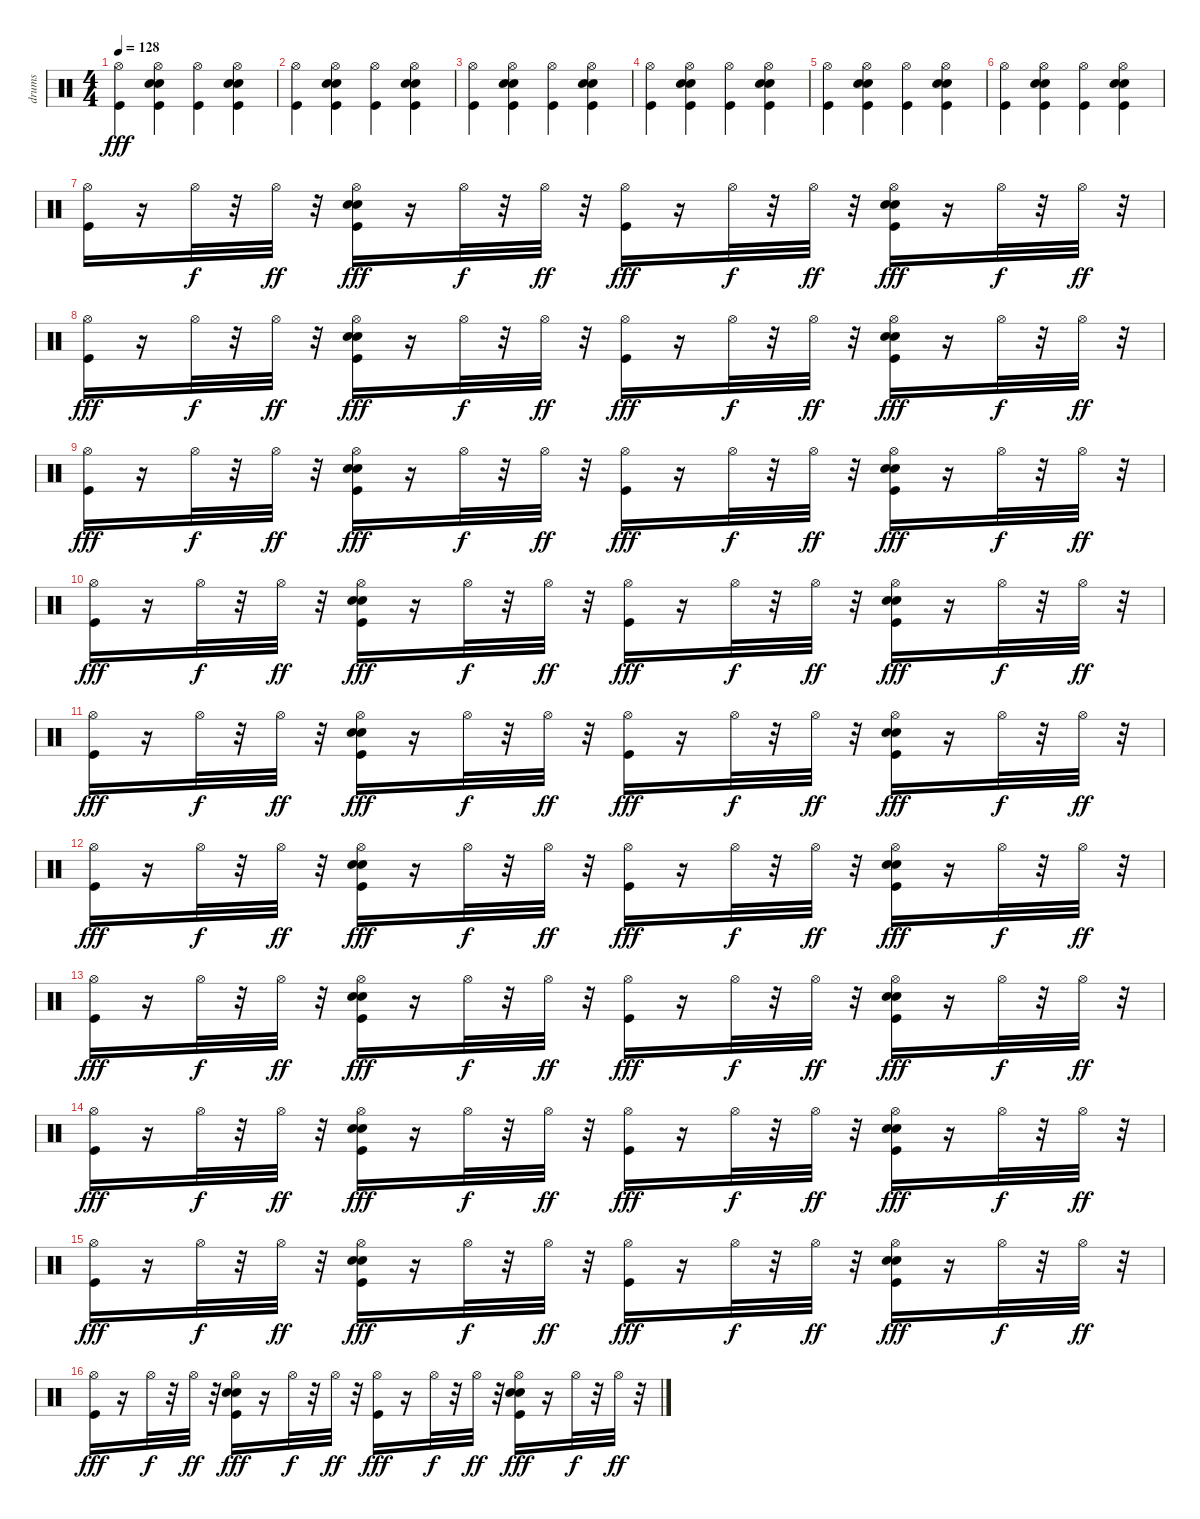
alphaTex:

\track ("drums" "drums") {instrument percussion}
\staff {score}
\articulation defaults
\ts (4 4)
\tempo 128
\clef neutral
\ks c
("Hi-Hat (open)" "Kick (hit)").4{dy fff} ("Kick (hit)" "Snare (hit) 2" "Electric Snare (hit)" "Hi-Hat (open)").4 ("Kick (hit)" "Hi-Hat (open)").4 ("Kick (hit)" "Snare (hit) 2" "Electric Snare (hit)" "Hi-Hat (open)").4 |
("Hi-Hat (open)" "Kick (hit)").4 ("Kick (hit)" "Snare (hit) 2" "Electric Snare (hit)" "Hi-Hat (open)").4 ("Kick (hit)" "Hi-Hat (open)").4 ("Kick (hit)" "Snare (hit) 2" "Electric Snare (hit)" "Hi-Hat (open)").4 |
("Hi-Hat (open)" "Kick (hit)").4 ("Kick (hit)" "Snare (hit) 2" "Electric Snare (hit)" "Hi-Hat (open)").4 ("Kick (hit)" "Hi-Hat (open)").4 ("Kick (hit)" "Snare (hit) 2" "Electric Snare (hit)" "Hi-Hat (open)").4 |
("Hi-Hat (open)" "Kick (hit)").4 ("Kick (hit)" "Snare (hit) 2" "Electric Snare (hit)" "Hi-Hat (open)").4 ("Kick (hit)" "Hi-Hat (open)").4 ("Kick (hit)" "Snare (hit) 2" "Electric Snare (hit)" "Hi-Hat (open)").4 |
("Hi-Hat (open)" "Kick (hit)").4 ("Kick (hit)" "Snare (hit) 2" "Electric Snare (hit)" "Hi-Hat (open)").4 ("Kick (hit)" "Hi-Hat (open)").4 ("Kick (hit)" "Snare (hit) 2" "Electric Snare (hit)" "Hi-Hat (open)").4 |
("Hi-Hat (open)" "Kick (hit)").4 ("Kick (hit)" "Snare (hit) 2" "Electric Snare (hit)" "Hi-Hat (open)").4 ("Kick (hit)" "Hi-Hat (open)").4 ("Kick (hit)" "Snare (hit) 2" "Electric Snare (hit)" "Hi-Hat (open)").4 |
("Kick (hit)" "Hi-Hat (open)").16 r.16 "Hi-Hat (open)".32{dy f} r.32 "Hi-Hat (open)".32{dy ff} r.32 ("Snare (hit) 2" "Electric Snare (hit)" "Kick (hit)" "Hi-Hat (open)").16{dy fff} r.16 "Hi-Hat (open)".32{dy f} r.32 "Hi-Hat (open)".32{dy ff} r.32 ("Kick (hit)" "Hi-Hat (open)").16{dy fff} r.16 "Hi-Hat (open)".32{dy f} r.32 "Hi-Hat (open)".32{dy ff} r.32 ("Kick (hit)" "Snare (hit) 2" "Electric Snare (hit)" "Hi-Hat (open)").16{dy fff} r.16 "Hi-Hat (open)".32{dy f} r.32 "Hi-Hat (open)".32{dy ff} r.32 |
("Hi-Hat (open)" "Kick (hit)").16{dy fff} r.16 "Hi-Hat (open)".32{dy f} r.32 "Hi-Hat (open)".32{dy ff} r.32 ("Snare (hit) 2" "Electric Snare (hit)" "Kick (hit)" "Hi-Hat (open)").16{dy fff} r.16 "Hi-Hat (open)".32{dy f} r.32 "Hi-Hat (open)".32{dy ff} r.32 ("Kick (hit)" "Hi-Hat (open)").16{dy fff} r.16 "Hi-Hat (open)".32{dy f} r.32 "Hi-Hat (open)".32{dy ff} r.32 ("Kick (hit)" "Snare (hit) 2" "Electric Snare (hit)" "Hi-Hat (open)").16{dy fff} r.16 "Hi-Hat (open)".32{dy f} r.32 "Hi-Hat (open)".32{dy ff} r.32 |
("Hi-Hat (open)" "Kick (hit)").16{dy fff} r.16 "Hi-Hat (open)".32{dy f} r.32 "Hi-Hat (open)".32{dy ff} r.32 ("Snare (hit) 2" "Electric Snare (hit)" "Kick (hit)" "Hi-Hat (open)").16{dy fff} r.16 "Hi-Hat (open)".32{dy f} r.32 "Hi-Hat (open)".32{dy ff} r.32 ("Kick (hit)" "Hi-Hat (open)").16{dy fff} r.16 "Hi-Hat (open)".32{dy f} r.32 "Hi-Hat (open)".32{dy ff} r.32 ("Kick (hit)" "Snare (hit) 2" "Electric Snare (hit)" "Hi-Hat (open)").16{dy fff} r.16 "Hi-Hat (open)".32{dy f} r.32 "Hi-Hat (open)".32{dy ff} r.32 |
("Hi-Hat (open)" "Kick (hit)").16{dy fff} r.16 "Hi-Hat (open)".32{dy f} r.32 "Hi-Hat (open)".32{dy ff} r.32 ("Snare (hit) 2" "Electric Snare (hit)" "Kick (hit)" "Hi-Hat (open)").16{dy fff} r.16 "Hi-Hat (open)".32{dy f} r.32 "Hi-Hat (open)".32{dy ff} r.32 ("Kick (hit)" "Hi-Hat (open)").16{dy fff} r.16 "Hi-Hat (open)".32{dy f} r.32 "Hi-Hat (open)".32{dy ff} r.32 ("Kick (hit)" "Snare (hit) 2" "Electric Snare (hit)" "Hi-Hat (open)").16{dy fff} r.16 "Hi-Hat (open)".32{dy f} r.32 "Hi-Hat (open)".32{dy ff} r.32 |
("Hi-Hat (open)" "Kick (hit)").16{dy fff} r.16 "Hi-Hat (open)".32{dy f} r.32 "Hi-Hat (open)".32{dy ff} r.32 ("Snare (hit) 2" "Electric Snare (hit)" "Kick (hit)" "Hi-Hat (open)").16{dy fff} r.16 "Hi-Hat (open)".32{dy f} r.32 "Hi-Hat (open)".32{dy ff} r.32 ("Kick (hit)" "Hi-Hat (open)").16{dy fff} r.16 "Hi-Hat (open)".32{dy f} r.32 "Hi-Hat (open)".32{dy ff} r.32 ("Kick (hit)" "Snare (hit) 2" "Electric Snare (hit)" "Hi-Hat (open)").16{dy fff} r.16 "Hi-Hat (open)".32{dy f} r.32 "Hi-Hat (open)".32{dy ff} r.32 |
("Hi-Hat (open)" "Kick (hit)").16{dy fff} r.16 "Hi-Hat (open)".32{dy f} r.32 "Hi-Hat (open)".32{dy ff} r.32 ("Snare (hit) 2" "Electric Snare (hit)" "Kick (hit)" "Hi-Hat (open)").16{dy fff} r.16 "Hi-Hat (open)".32{dy f} r.32 "Hi-Hat (open)".32{dy ff} r.32 ("Kick (hit)" "Hi-Hat (open)").16{dy fff} r.16 "Hi-Hat (open)".32{dy f} r.32 "Hi-Hat (open)".32{dy ff} r.32 ("Kick (hit)" "Snare (hit) 2" "Electric Snare (hit)" "Hi-Hat (open)").16{dy fff} r.16 "Hi-Hat (open)".32{dy f} r.32 "Hi-Hat (open)".32{dy ff} r.32 |
("Hi-Hat (open)" "Kick (hit)").16{dy fff} r.16 "Hi-Hat (open)".32{dy f} r.32 "Hi-Hat (open)".32{dy ff} r.32 ("Snare (hit) 2" "Electric Snare (hit)" "Kick (hit)" "Hi-Hat (open)").16{dy fff} r.16 "Hi-Hat (open)".32{dy f} r.32 "Hi-Hat (open)".32{dy ff} r.32 ("Kick (hit)" "Hi-Hat (open)").16{dy fff} r.16 "Hi-Hat (open)".32{dy f} r.32 "Hi-Hat (open)".32{dy ff} r.32 ("Kick (hit)" "Snare (hit) 2" "Electric Snare (hit)" "Hi-Hat (open)").16{dy fff} r.16 "Hi-Hat (open)".32{dy f} r.32 "Hi-Hat (open)".32{dy ff} r.32 |
("Hi-Hat (open)" "Kick (hit)").16{dy fff} r.16 "Hi-Hat (open)".32{dy f} r.32 "Hi-Hat (open)".32{dy ff} r.32 ("Snare (hit) 2" "Electric Snare (hit)" "Kick (hit)" "Hi-Hat (open)").16{dy fff} r.16 "Hi-Hat (open)".32{dy f} r.32 "Hi-Hat (open)".32{dy ff} r.32 ("Kick (hit)" "Hi-Hat (open)").16{dy fff} r.16 "Hi-Hat (open)".32{dy f} r.32 "Hi-Hat (open)".32{dy ff} r.32 ("Kick (hit)" "Snare (hit) 2" "Electric Snare (hit)" "Hi-Hat (open)").16{dy fff} r.16 "Hi-Hat (open)".32{dy f} r.32 "Hi-Hat (open)".32{dy ff} r.32 |
("Kick (hit)" "Hi-Hat (open)").16{dy fff} r.16 "Hi-Hat (open)".32{dy f} r.32 "Hi-Hat (open)".32{dy ff} r.32 ("Snare (hit) 2" "Electric Snare (hit)" "Kick (hit)" "Hi-Hat (open)").16{dy fff} r.16 "Hi-Hat (open)".32{dy f} r.32 "Hi-Hat (open)".32{dy ff} r.32 ("Kick (hit)" "Hi-Hat (open)").16{dy fff} r.16 "Hi-Hat (open)".32{dy f} r.32 "Hi-Hat (open)".32{dy ff} r.32 ("Kick (hit)" "Snare (hit) 2" "Electric Snare (hit)" "Hi-Hat (open)").16{dy fff} r.16 "Hi-Hat (open)".32{dy f} r.32 "Hi-Hat (open)".32{dy ff} r.32 |
("Hi-Hat (open)" "Kick (hit)").16{dy fff} r.16 "Hi-Hat (open)".32{dy f} r.32 "Hi-Hat (open)".32{dy ff} r.32 ("Snare (hit) 2" "Electric Snare (hit)" "Kick (hit)" "Hi-Hat (open)").16{dy fff} r.16 "Hi-Hat (open)".32{dy f} r.32 "Hi-Hat (open)".32{dy ff} r.32 ("Kick (hit)" "Hi-Hat (open)").16{dy fff} r.16 "Hi-Hat (open)".32{dy f} r.32 "Hi-Hat (open)".32{dy ff} r.32 ("Kick (hit)" "Snare (hit) 2" "Electric Snare (hit)" "Hi-Hat (open)").16{dy fff} r.16 "Hi-Hat (open)".32{dy f} r.32 "Hi-Hat (open)".32{dy ff} r.32
